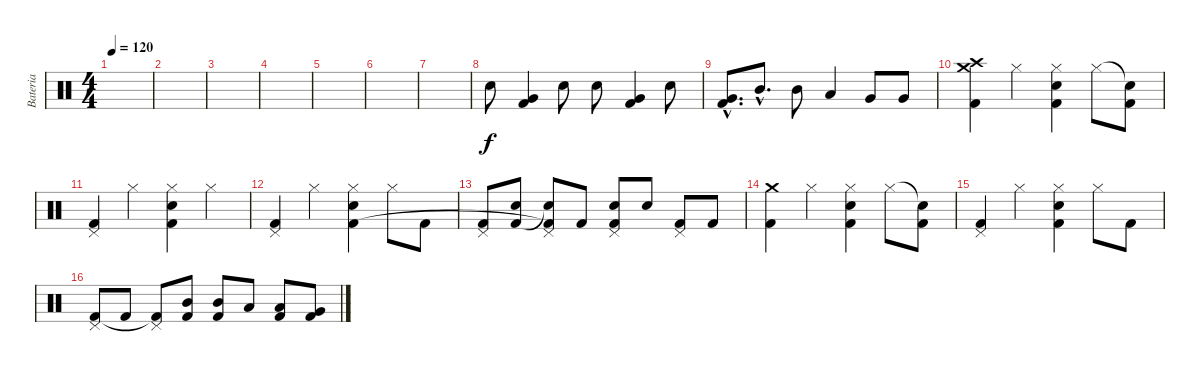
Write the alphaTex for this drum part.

\track ("Bateria" "Bateria") {instrument percussion}
\staff {score}
\articulation defaults
\ts (4 4)
\tempo 120
\clef neutral
\ks c
|
|
|
|
|
|
|
"Electric Snare (hit)".8 ("Very Low Tom (hit)" "Kick (hit) 2").4 "Electric Snare (hit)".8 "Electric Snare (hit)".8 ("Very Low Tom (hit)" "Kick (hit) 2").4 "Electric Snare (hit)".8 |
("Very Low Tom (hit)"{hac} "Kick (hit) 2"{hac}).8{d} "Mid Tom (hit)"{hac}.8{d} "Mid Tom (hit)".8 "Low Tom (hit)".4 "Very Low Tom (hit)".8 "Very Low Tom (hit)".8 |
("Crash medium (hit)" "Crash high (hit)" "Kick (hit) 2").4 "Hi-Hat (closed)".4 ("Hi-Hat (closed)" "Electric Snare (hit)" "Kick (hit) 2").4 "Hi-Hat (closed)".8 ("Snare (hit)"{t} "Kick (hit) 2").8 |
("Pedal Hi-Hat (hit)" "Kick (hit) 2").4 "Hi-Hat (closed)".4 ("Hi-Hat (closed)" "Electric Snare (hit)" "Kick (hit) 2").4 "Hi-Hat (closed)".4 |
("Pedal Hi-Hat (hit)" "Kick (hit) 2").4 "Hi-Hat (closed)".4 ("Hi-Hat (closed)" "Electric Snare (hit)" "Kick (hit) 2").4 "Hi-Hat (closed)".8 "Kick (hit) 2".8 |
("Pedal Hi-Hat (hit)" "Kick (hit) 2").8 ("Electric Snare (hit)" "Kick (hit) 2").8 ("Pedal Hi-Hat (hit)" "Snare (hit)"{t} "Kick (hit) 2"{t}).8 "Kick (hit) 2".8 ("Pedal Hi-Hat (hit)" "Electric Snare (hit)" "Kick (hit) 2").8 "Electric Snare (hit)".8 ("Pedal Hi-Hat (hit)" "Kick (hit) 2").8 "Kick (hit) 2".8 |
("Crash medium (hit)" "Kick (hit) 2").4 "Hi-Hat (closed)".4 ("Hi-Hat (closed)" "Electric Snare (hit)" "Kick (hit) 2").4 "Hi-Hat (closed)".8 ("Snare (hit)"{t} "Kick (hit) 2").8 |
("Pedal Hi-Hat (hit)" "Kick (hit) 2").4 "Hi-Hat (closed)".4 ("Hi-Hat (closed)" "Electric Snare (hit)" "Kick (hit) 2").4 "Hi-Hat (closed)".8 "Kick (hit) 2".8 |
("Pedal Hi-Hat (hit)" "Kick (hit) 2").8 "Kick (hit) 2".8 ("Pedal Hi-Hat (hit)" "Kick (hit) 2"{t}).8 ("Mid Tom (hit)" "Kick (hit) 2").8 ("Mid Tom (hit)" "Kick (hit) 2").8 "Low Tom (hit)".8 ("Low Tom (hit)" "Kick (hit) 2").8 ("Very Low Tom (hit)" "Kick (hit) 2").8
